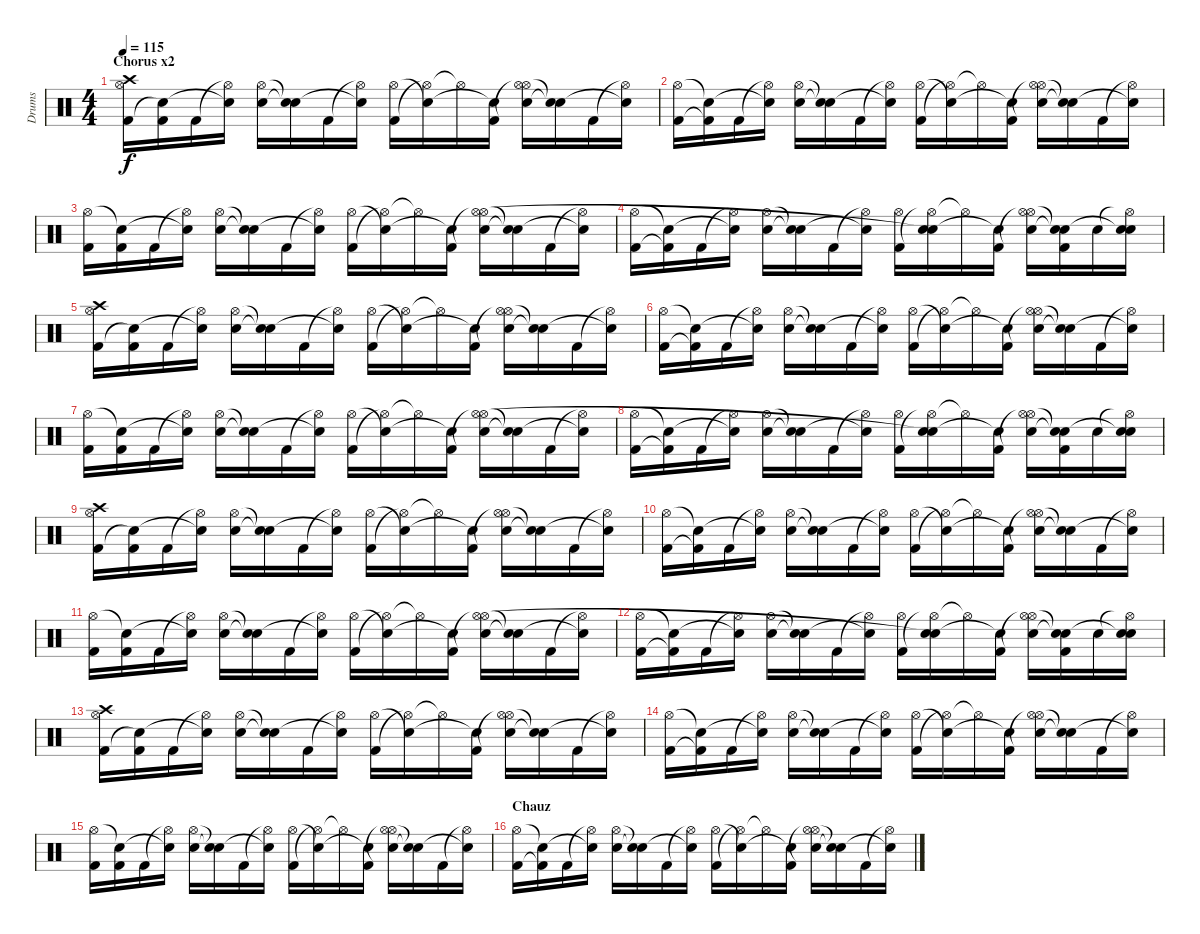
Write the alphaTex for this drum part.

\track ("Drums" "Drums") {instrument percussion}
\staff {score}
\articulation defaults
\ts (4 4)
\section ("" "Chorus x2")
\tempo 115
\clef neutral
\ks c
("Crash high (hit)" "Kick (hit) 2" "Hi-Hat (open)").16{dy f} ("Kick (hit) 2" "Snare (hit)"{t}).16 "Kick (hit) 2".16 ("Hi-Hat (open)"{t} "Snare (hit)"{t}).16 ("Electric Snare (hit)" "Hi-Hat (open)").16 ("Snare (hit)"{t} "Snare (hit)"{t}).16 "Kick (hit) 2".16 ("Hi-Hat (open)"{t} "Snare (hit)"{t}).16 ("Kick (hit) 2" "Hi-Hat (open)").16 ("Hi-Hat (open)"{t} "Snare (hit)"{t}).16 "Hi-Hat (open)"{t}.16 ("Kick (hit) 2" "Snare (hit)"{t}).16 ("Hi-Hat (open)"{t} "Electric Snare (hit)" "Hi-Hat (open)").16 ("Electric Snare (hit)"{t} "Snare (hit)"{t}).16 "Kick (hit) 2".16 ("Hi-Hat (open)"{t} "Snare (hit)"{t}).16 |
("Kick (hit) 2" "Hi-Hat (open)").16 ("Kick (hit) 2"{t} "Snare (hit)"{t}).16 "Kick (hit) 2".16 ("Hi-Hat (open)"{t} "Snare (hit)"{t}).16 ("Electric Snare (hit)" "Hi-Hat (open)").16 ("Snare (hit)"{t} "Snare (hit)"{t}).16 "Kick (hit) 2".16 ("Hi-Hat (open)"{t} "Snare (hit)"{t}).16 ("Kick (hit) 2" "Hi-Hat (open)").16 ("Hi-Hat (open)"{t} "Snare (hit)"{t}).16 "Hi-Hat (open)"{t}.16 ("Kick (hit) 2" "Snare (hit)"{t}).16 ("Hi-Hat (open)"{t} "Electric Snare (hit)" "Hi-Hat (open)").16 ("Electric Snare (hit)"{t} "Snare (hit)"{t}).16 "Kick (hit) 2".16 ("Hi-Hat (open)"{t} "Snare (hit)"{t}).16 |
("Kick (hit) 2" "Hi-Hat (open)").16 ("Kick (hit) 2" "Snare (hit)"{t}).16 "Kick (hit) 2".16 ("Hi-Hat (open)"{t} "Snare (hit)"{t}).16 ("Electric Snare (hit)" "Hi-Hat (open)").16 ("Snare (hit)"{t} "Snare (hit)"{t}).16 "Kick (hit) 2".16 ("Hi-Hat (open)"{t} "Snare (hit)"{t}).16 ("Kick (hit) 2" "Hi-Hat (open)").16 ("Hi-Hat (open)"{t} "Snare (hit)"{t}).16 "Hi-Hat (open)"{t}.16 ("Kick (hit) 2" "Snare (hit)"{t}).16 ("Hi-Hat (open)"{t} "Electric Snare (hit)" "Hi-Hat (open)").16 ("Electric Snare (hit)"{t} "Snare (hit)"{t}).16 "Kick (hit) 2".16 ("Hi-Hat (open)"{t} "Snare (hit)"{t}).16 |
("Kick (hit) 2" "Hi-Hat (open)").16 ("Kick (hit) 2"{t} "Snare (hit)"{t}).16 "Kick (hit) 2".16 ("Hi-Hat (open)"{t} "Snare (hit)"{t}).16 ("Electric Snare (hit)" "Hi-Hat (open)").16 ("Snare (hit)"{t} "Snare (hit)"{t}).16 "Kick (hit) 2".16 ("Hi-Hat (open)"{t} "Snare (hit)"{t}).16 ("Kick (hit) 2" "Hi-Hat (open)").16 ("Hi-Hat (open)"{t} "Electric Snare (hit)" "Snare (hit)"{t}).16 "Hi-Hat (open)"{t}.16 ("Kick (hit) 2" "Snare (hit)"{t}).16 ("Hi-Hat (open)"{t} "Electric Snare (hit)" "Hi-Hat (open)").16 ("Kick (hit) 2" "Electric Snare (hit)"{t} "Snare (hit)"{t}).16 "Electric Snare (hit)".16 ("Hi-Hat (open)"{t} "Electric Snare (hit)" "Snare (hit)"{t}).16 |
("Crash high (hit)" "Kick (hit) 2" "Hi-Hat (open)").16 ("Kick (hit) 2" "Snare (hit)"{t}).16 "Kick (hit) 2".16 ("Hi-Hat (open)"{t} "Snare (hit)"{t}).16 ("Electric Snare (hit)" "Hi-Hat (open)").16 ("Snare (hit)"{t} "Snare (hit)"{t}).16 "Kick (hit) 2".16 ("Hi-Hat (open)"{t} "Snare (hit)"{t}).16 ("Kick (hit) 2" "Hi-Hat (open)").16 ("Hi-Hat (open)"{t} "Snare (hit)"{t}).16 "Hi-Hat (open)"{t}.16 ("Kick (hit) 2" "Snare (hit)"{t}).16 ("Hi-Hat (open)"{t} "Electric Snare (hit)" "Hi-Hat (open)").16 ("Electric Snare (hit)"{t} "Snare (hit)"{t}).16 "Kick (hit) 2".16 ("Hi-Hat (open)"{t} "Snare (hit)"{t}).16 |
("Kick (hit) 2" "Hi-Hat (open)").16 ("Kick (hit) 2"{t} "Snare (hit)"{t}).16 "Kick (hit) 2".16 ("Hi-Hat (open)"{t} "Snare (hit)"{t}).16 ("Electric Snare (hit)" "Hi-Hat (open)").16 ("Snare (hit)"{t} "Snare (hit)"{t}).16 "Kick (hit) 2".16 ("Hi-Hat (open)"{t} "Snare (hit)"{t}).16 ("Kick (hit) 2" "Hi-Hat (open)").16 ("Hi-Hat (open)"{t} "Snare (hit)"{t}).16 "Hi-Hat (open)"{t}.16 ("Kick (hit) 2" "Snare (hit)"{t}).16 ("Hi-Hat (open)"{t} "Electric Snare (hit)" "Hi-Hat (open)").16 ("Electric Snare (hit)"{t} "Snare (hit)"{t}).16 "Kick (hit) 2".16 ("Hi-Hat (open)"{t} "Snare (hit)"{t}).16 |
("Kick (hit) 2" "Hi-Hat (open)").16 ("Kick (hit) 2" "Snare (hit)"{t}).16 "Kick (hit) 2".16 ("Hi-Hat (open)"{t} "Snare (hit)"{t}).16 ("Electric Snare (hit)" "Hi-Hat (open)").16 ("Snare (hit)"{t} "Snare (hit)"{t}).16 "Kick (hit) 2".16 ("Hi-Hat (open)"{t} "Snare (hit)"{t}).16 ("Kick (hit) 2" "Hi-Hat (open)").16 ("Hi-Hat (open)"{t} "Snare (hit)"{t}).16 "Hi-Hat (open)"{t}.16 ("Kick (hit) 2" "Snare (hit)"{t}).16 ("Hi-Hat (open)"{t} "Electric Snare (hit)" "Hi-Hat (open)").16 ("Electric Snare (hit)"{t} "Snare (hit)"{t}).16 "Kick (hit) 2".16 ("Hi-Hat (open)"{t} "Snare (hit)"{t}).16 |
("Kick (hit) 2" "Hi-Hat (open)").16 ("Kick (hit) 2"{t} "Snare (hit)"{t}).16 "Kick (hit) 2".16 ("Hi-Hat (open)"{t} "Snare (hit)"{t}).16 ("Electric Snare (hit)" "Hi-Hat (open)").16 ("Snare (hit)"{t} "Snare (hit)"{t}).16 "Kick (hit) 2".16 ("Hi-Hat (open)"{t} "Snare (hit)"{t}).16 ("Kick (hit) 2" "Hi-Hat (open)").16 ("Hi-Hat (open)"{t} "Electric Snare (hit)" "Snare (hit)"{t}).16 "Hi-Hat (open)"{t}.16 ("Kick (hit) 2" "Snare (hit)"{t}).16 ("Hi-Hat (open)"{t} "Electric Snare (hit)" "Hi-Hat (open)").16 ("Kick (hit) 2" "Electric Snare (hit)"{t} "Snare (hit)"{t}).16 "Electric Snare (hit)".16 ("Hi-Hat (open)"{t} "Electric Snare (hit)" "Snare (hit)"{t}).16 |
("Crash high (hit)" "Kick (hit) 2" "Hi-Hat (open)").16 ("Kick (hit) 2" "Snare (hit)"{t}).16 "Kick (hit) 2".16 ("Hi-Hat (open)"{t} "Snare (hit)"{t}).16 ("Electric Snare (hit)" "Hi-Hat (open)").16 ("Snare (hit)"{t} "Snare (hit)"{t}).16 "Kick (hit) 2".16 ("Hi-Hat (open)"{t} "Snare (hit)"{t}).16 ("Kick (hit) 2" "Hi-Hat (open)").16 ("Hi-Hat (open)"{t} "Snare (hit)"{t}).16 "Hi-Hat (open)"{t}.16 ("Kick (hit) 2" "Snare (hit)"{t}).16 ("Hi-Hat (open)"{t} "Electric Snare (hit)" "Hi-Hat (open)").16 ("Electric Snare (hit)"{t} "Snare (hit)"{t}).16 "Kick (hit) 2".16 ("Hi-Hat (open)"{t} "Snare (hit)"{t}).16 |
("Kick (hit) 2" "Hi-Hat (open)").16 ("Kick (hit) 2"{t} "Snare (hit)"{t}).16 "Kick (hit) 2".16 ("Hi-Hat (open)"{t} "Snare (hit)"{t}).16 ("Electric Snare (hit)" "Hi-Hat (open)").16 ("Snare (hit)"{t} "Snare (hit)"{t}).16 "Kick (hit) 2".16 ("Hi-Hat (open)"{t} "Snare (hit)"{t}).16 ("Kick (hit) 2" "Hi-Hat (open)").16 ("Hi-Hat (open)"{t} "Snare (hit)"{t}).16 "Hi-Hat (open)"{t}.16 ("Kick (hit) 2" "Snare (hit)"{t}).16 ("Hi-Hat (open)"{t} "Electric Snare (hit)" "Hi-Hat (open)").16 ("Electric Snare (hit)"{t} "Snare (hit)"{t}).16 "Kick (hit) 2".16 ("Hi-Hat (open)"{t} "Snare (hit)"{t}).16 |
("Kick (hit) 2" "Hi-Hat (open)").16 ("Kick (hit) 2" "Snare (hit)"{t}).16 "Kick (hit) 2".16 ("Hi-Hat (open)"{t} "Snare (hit)"{t}).16 ("Electric Snare (hit)" "Hi-Hat (open)").16 ("Snare (hit)"{t} "Snare (hit)"{t}).16 "Kick (hit) 2".16 ("Hi-Hat (open)"{t} "Snare (hit)"{t}).16 ("Kick (hit) 2" "Hi-Hat (open)").16 ("Hi-Hat (open)"{t} "Snare (hit)"{t}).16 "Hi-Hat (open)"{t}.16 ("Kick (hit) 2" "Snare (hit)"{t}).16 ("Hi-Hat (open)"{t} "Electric Snare (hit)" "Hi-Hat (open)").16 ("Electric Snare (hit)"{t} "Snare (hit)"{t}).16 "Kick (hit) 2".16 ("Hi-Hat (open)"{t} "Snare (hit)"{t}).16 |
("Kick (hit) 2" "Hi-Hat (open)").16 ("Kick (hit) 2"{t} "Snare (hit)"{t}).16 "Kick (hit) 2".16 ("Hi-Hat (open)"{t} "Snare (hit)"{t}).16 ("Electric Snare (hit)" "Hi-Hat (open)").16 ("Snare (hit)"{t} "Snare (hit)"{t}).16 "Kick (hit) 2".16 ("Hi-Hat (open)"{t} "Snare (hit)"{t}).16 ("Kick (hit) 2" "Hi-Hat (open)").16 ("Hi-Hat (open)"{t} "Electric Snare (hit)" "Snare (hit)"{t}).16 "Hi-Hat (open)"{t}.16 ("Kick (hit) 2" "Snare (hit)"{t}).16 ("Hi-Hat (open)"{t} "Electric Snare (hit)" "Hi-Hat (open)").16 ("Kick (hit) 2" "Electric Snare (hit)"{t} "Snare (hit)"{t}).16 "Electric Snare (hit)".16 ("Hi-Hat (open)"{t} "Electric Snare (hit)" "Snare (hit)"{t}).16 |
("Crash high (hit)" "Kick (hit) 2" "Hi-Hat (open)").16 ("Kick (hit) 2" "Snare (hit)"{t}).16 "Kick (hit) 2".16 ("Hi-Hat (open)"{t} "Snare (hit)"{t}).16 ("Electric Snare (hit)" "Hi-Hat (open)").16 ("Snare (hit)"{t} "Snare (hit)"{t}).16 "Kick (hit) 2".16 ("Hi-Hat (open)"{t} "Snare (hit)"{t}).16 ("Kick (hit) 2" "Hi-Hat (open)").16 ("Hi-Hat (open)"{t} "Snare (hit)"{t}).16 "Hi-Hat (open)"{t}.16 ("Kick (hit) 2" "Snare (hit)"{t}).16 ("Hi-Hat (open)"{t} "Electric Snare (hit)" "Hi-Hat (open)").16 ("Electric Snare (hit)"{t} "Snare (hit)"{t}).16 "Kick (hit) 2".16 ("Hi-Hat (open)"{t} "Snare (hit)"{t}).16 |
("Kick (hit) 2" "Hi-Hat (open)").16 ("Kick (hit) 2"{t} "Snare (hit)"{t}).16 "Kick (hit) 2".16 ("Hi-Hat (open)"{t} "Snare (hit)"{t}).16 ("Electric Snare (hit)" "Hi-Hat (open)").16 ("Snare (hit)"{t} "Snare (hit)"{t}).16 "Kick (hit) 2".16 ("Hi-Hat (open)"{t} "Snare (hit)"{t}).16 ("Kick (hit) 2" "Hi-Hat (open)").16 ("Hi-Hat (open)"{t} "Snare (hit)"{t}).16 "Hi-Hat (open)"{t}.16 ("Kick (hit) 2" "Snare (hit)"{t}).16 ("Hi-Hat (open)"{t} "Electric Snare (hit)" "Hi-Hat (open)").16 ("Electric Snare (hit)"{t} "Snare (hit)"{t}).16 "Kick (hit) 2".16 ("Hi-Hat (open)"{t} "Snare (hit)"{t}).16 |
("Kick (hit) 2" "Hi-Hat (open)").16 ("Kick (hit) 2" "Snare (hit)"{t}).16 "Kick (hit) 2".16 ("Hi-Hat (open)"{t} "Snare (hit)"{t}).16 ("Electric Snare (hit)" "Hi-Hat (open)").16 ("Snare (hit)"{t} "Snare (hit)"{t}).16 "Kick (hit) 2".16 ("Hi-Hat (open)"{t} "Snare (hit)"{t}).16 ("Kick (hit) 2" "Hi-Hat (open)").16 ("Hi-Hat (open)"{t} "Snare (hit)"{t}).16 "Hi-Hat (open)"{t}.16 ("Kick (hit) 2" "Snare (hit)"{t}).16 ("Hi-Hat (open)"{t} "Electric Snare (hit)" "Hi-Hat (open)").16 ("Electric Snare (hit)"{t} "Snare (hit)"{t}).16 "Kick (hit) 2".16 ("Hi-Hat (open)"{t} "Snare (hit)"{t}).16 |
\section ("" "Chauz")
("Kick (hit) 2" "Hi-Hat (open)").16 ("Kick (hit) 2"{t} "Snare (hit)"{t}).16 "Kick (hit) 2".16 ("Hi-Hat (open)"{t} "Snare (hit)"{t}).16 ("Electric Snare (hit)" "Hi-Hat (open)").16 ("Snare (hit)"{t} "Snare (hit)"{t}).16 "Kick (hit) 2".16 ("Hi-Hat (open)"{t} "Snare (hit)"{t}).16 ("Kick (hit) 2" "Hi-Hat (open)").16 ("Hi-Hat (open)"{t} "Snare (hit)"{t}).16 "Hi-Hat (open)"{t}.16 ("Kick (hit) 2" "Snare (hit)"{t}).16 ("Hi-Hat (open)"{t} "Electric Snare (hit)" "Hi-Hat (open)").16 ("Electric Snare (hit)"{t} "Snare (hit)"{t}).16 "Kick (hit) 2".16 ("Hi-Hat (open)"{t} "Snare (hit)"{t}).16
